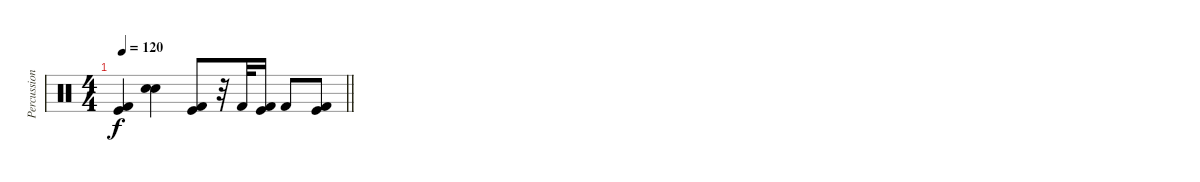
\track ("Percussion" "Percussion") {instrument percussion}
\staff {score}
\articulation defaults
\ts (4 4)
\tempo 120
\clef neutral
\barLineRight lightlight
\ks c
("Kick (hit)" "Kick (hit) 2").4{dy f} ("Snare (hit) 2" "Electric Snare (hit)").4 ("Kick (hit)" "Kick (hit) 2").8 r.32 "Kick (hit) 2".32 ("Kick (hit)" "Kick (hit) 2").16 "Kick (hit) 2".8 ("Kick (hit)" "Kick (hit) 2").8
